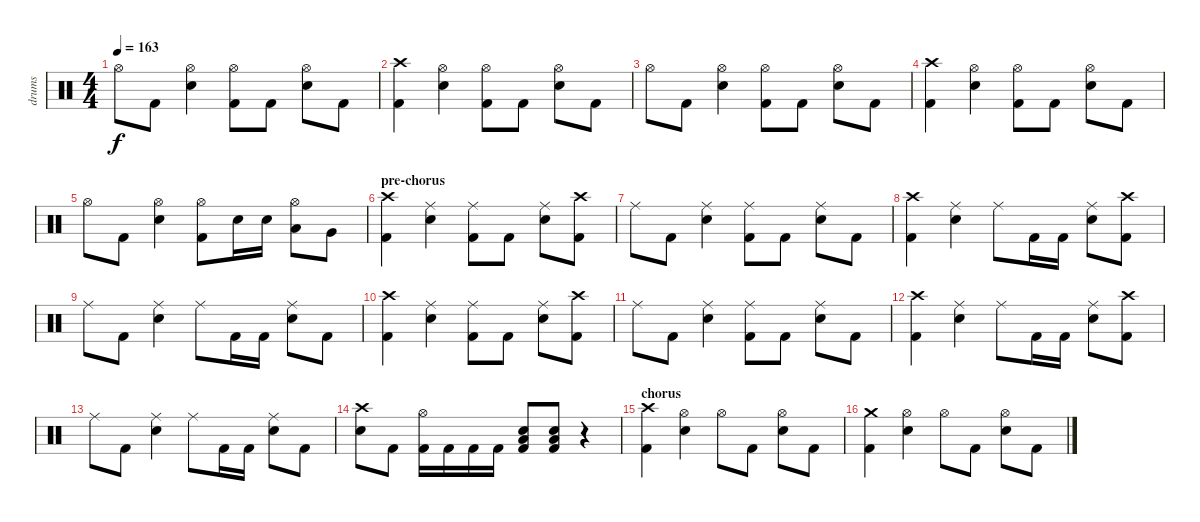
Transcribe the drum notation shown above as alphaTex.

\track ("drums" "drums") {instrument percussion}
\staff {score}
\articulation defaults
\ts (4 4)
\tempo 163
\clef neutral
\ks c "Hi-Hat (open)".8{dy f} "Kick (hit) 2".8
("Hi-Hat (open)" "Electric Snare (hit)").4 ("Hi-Hat (open)" "Kick (hit) 2").8 "Kick (hit) 2".8 ("Hi-Hat (open)" "Electric Snare (hit)").8 "Kick (hit) 2".8 |
("Crash high (hit)" "Kick (hit) 2").4 ("Hi-Hat (open)" "Electric Snare (hit)").4 ("Hi-Hat (open)" "Kick (hit) 2").8 "Kick (hit) 2".8 ("Hi-Hat (open)" "Electric Snare (hit)").8 "Kick (hit) 2".8 |
"Hi-Hat (open)".8 "Kick (hit) 2".8 ("Hi-Hat (open)" "Electric Snare (hit)").4 ("Hi-Hat (open)" "Kick (hit) 2").8 "Kick (hit) 2".8 ("Hi-Hat (open)" "Electric Snare (hit)").8 "Kick (hit) 2".8 |
("Crash high (hit)" "Kick (hit) 2").4 ("Hi-Hat (open)" "Electric Snare (hit)").4 ("Hi-Hat (open)" "Kick (hit) 2").8 "Kick (hit) 2".8 ("Hi-Hat (open)" "Electric Snare (hit)").8 "Kick (hit) 2".8 |
"Hi-Hat (open)".8 "Kick (hit) 2".8 ("Hi-Hat (open)" "Electric Snare (hit)").4 ("Hi-Hat (open)" "Kick (hit) 2").8 "Electric Snare (hit)".16 "Electric Snare (hit)".16 ("Hi-Hat (open)" "Low Tom (hit)").8 "Very Low Tom (hit)".8 |
\section ("" "pre-chorus")
("Crash high (hit)" "Kick (hit) 2").4 ("Ride (middle)" "Electric Snare (hit)").4 ("Ride (middle)" "Kick (hit) 2").8 "Kick (hit) 2".8 ("Ride (middle)" "Electric Snare (hit)").8 ("Crash high (hit)" "Kick (hit) 2").8 |
"Ride (middle)".8 "Kick (hit) 2".8 ("Ride (middle)" "Electric Snare (hit)").4 ("Ride (middle)" "Kick (hit) 2").8 "Kick (hit) 2".8 ("Ride (middle)" "Electric Snare (hit)").8 "Kick (hit) 2".8 |
("Crash high (hit)" "Kick (hit) 2").4 ("Ride (middle)" "Electric Snare (hit)").4 "Ride (middle)".8 "Kick (hit) 2".16 "Kick (hit) 2".16 ("Ride (middle)" "Electric Snare (hit)").8 ("Crash high (hit)" "Kick (hit) 2").8 |
"Ride (middle)".8 "Kick (hit) 2".8 ("Ride (middle)" "Electric Snare (hit)").4 "Ride (middle)".8 "Kick (hit) 2".16 "Kick (hit) 2".16 ("Ride (middle)" "Electric Snare (hit)").8 "Kick (hit) 2".8 |
("Crash high (hit)" "Kick (hit) 2").4 ("Ride (middle)" "Electric Snare (hit)").4 ("Ride (middle)" "Kick (hit) 2").8 "Kick (hit) 2".8 ("Ride (middle)" "Electric Snare (hit)").8 ("Crash high (hit)" "Kick (hit) 2").8 |
"Ride (middle)".8 "Kick (hit) 2".8 ("Ride (middle)" "Electric Snare (hit)").4 ("Ride (middle)" "Kick (hit) 2").8 "Kick (hit) 2".8 ("Ride (middle)" "Electric Snare (hit)").8 "Kick (hit) 2".8 |
("Crash high (hit)" "Kick (hit) 2").4 ("Ride (middle)" "Electric Snare (hit)").4 "Ride (middle)".8 "Kick (hit) 2".16 "Kick (hit) 2".16 ("Ride (middle)" "Electric Snare (hit)").8 ("Crash high (hit)" "Kick (hit) 2").8 |
"Ride (middle)".8 "Kick (hit) 2".8 ("Ride (middle)" "Electric Snare (hit)").4 "Ride (middle)".8 "Kick (hit) 2".16 "Kick (hit) 2".16 ("Ride (middle)" "Electric Snare (hit)").8 "Kick (hit) 2".8 |
("Crash high (hit)" "Electric Snare (hit)").8 "Kick (hit) 2".8 ("Hi-Hat (open)" "Kick (hit) 2").16 "Kick (hit) 2".16 "Kick (hit) 2".16 "Kick (hit) 2".16 ("Low Floor Tom (hit)" "Electric Snare (hit)" "Kick (hit) 2").8 ("Low Floor Tom (hit)" "Electric Snare (hit)" "Kick (hit) 2").8 r.4 |
\section ("" "chorus")
("Crash high (hit)" "Kick (hit) 2").4 ("Hi-Hat (open)" "Electric Snare (hit)").4 "Hi-Hat (open)".8 "Kick (hit) 2".8 ("Hi-Hat (open)" "Electric Snare (hit)").8 "Kick (hit) 2".8 |
("Crash medium (hit)" "Kick (hit) 2").4 ("Hi-Hat (open)" "Electric Snare (hit)").4 "Hi-Hat (open)".8 "Kick (hit) 2".8 ("Hi-Hat (open)" "Electric Snare (hit)").8 "Kick (hit) 2".8
